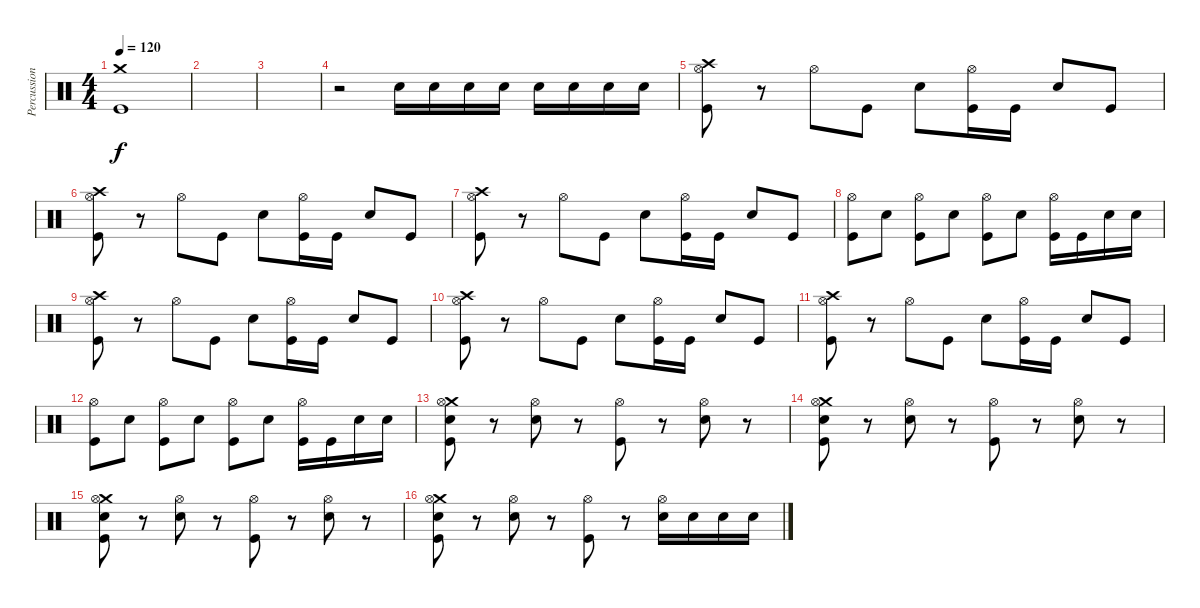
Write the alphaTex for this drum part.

\track ("Percussion" "Percussion") {instrument percussion}
\staff {score}
\articulation defaults
\ts (4 4)
\tempo 120
\clef neutral
\ks c
("Crash medium (hit)" "Kick (hit)").1{dy f} |
|
|
r.2 "Electric Snare (hit)".16 "Electric Snare (hit)".16 "Electric Snare (hit)".16 "Electric Snare (hit)".16 "Electric Snare (hit)".16 "Electric Snare (hit)".16 "Electric Snare (hit)".16 "Electric Snare (hit)".16 |
("Crash high (hit)" "Hi-Hat (open)" "Kick (hit)").8 r.8 "Hi-Hat (open)".8 "Kick (hit)".8 "Electric Snare (hit)".8 ("Hi-Hat (open)" "Kick (hit)").16 "Kick (hit)".16 "Electric Snare (hit)".8 "Kick (hit)".8 |
("Crash high (hit)" "Hi-Hat (open)" "Kick (hit)").8 r.8 "Hi-Hat (open)".8 "Kick (hit)".8 "Electric Snare (hit)".8 ("Hi-Hat (open)" "Kick (hit)").16 "Kick (hit)".16 "Electric Snare (hit)".8 "Kick (hit)".8 |
("Crash high (hit)" "Hi-Hat (open)" "Kick (hit)").8 r.8 "Hi-Hat (open)".8 "Kick (hit)".8 "Electric Snare (hit)".8 ("Hi-Hat (open)" "Kick (hit)").16 "Kick (hit)".16 "Electric Snare (hit)".8 "Kick (hit)".8 |
("Hi-Hat (open)" "Kick (hit)").8 "Electric Snare (hit)".8 ("Hi-Hat (open)" "Kick (hit)").8 "Electric Snare (hit)".8 ("Hi-Hat (open)" "Kick (hit)").8 "Electric Snare (hit)".8 ("Hi-Hat (open)" "Kick (hit)").16 "Kick (hit)".16 "Electric Snare (hit)".16 "Electric Snare (hit)".16 |
("Crash high (hit)" "Hi-Hat (open)" "Kick (hit)").8 r.8 "Hi-Hat (open)".8 "Kick (hit)".8 "Electric Snare (hit)".8 ("Hi-Hat (open)" "Kick (hit)").16 "Kick (hit)".16 "Electric Snare (hit)".8 "Kick (hit)".8 |
("Crash high (hit)" "Hi-Hat (open)" "Kick (hit)").8 r.8 "Hi-Hat (open)".8 "Kick (hit)".8 "Electric Snare (hit)".8 ("Hi-Hat (open)" "Kick (hit)").16 "Kick (hit)".16 "Electric Snare (hit)".8 "Kick (hit)".8 |
("Crash high (hit)" "Hi-Hat (open)" "Kick (hit)").8 r.8 "Hi-Hat (open)".8 "Kick (hit)".8 "Electric Snare (hit)".8 ("Hi-Hat (open)" "Kick (hit)").16 "Kick (hit)".16 "Electric Snare (hit)".8 "Kick (hit)".8 |
("Hi-Hat (open)" "Kick (hit)").8 "Electric Snare (hit)".8 ("Hi-Hat (open)" "Kick (hit)").8 "Electric Snare (hit)".8 ("Hi-Hat (open)" "Kick (hit)").8 "Electric Snare (hit)".8 ("Hi-Hat (open)" "Kick (hit)").16 "Kick (hit)".16 "Electric Snare (hit)".16 "Electric Snare (hit)".16 |
("Crash medium (hit)" "Hi-Hat (open)" "Electric Snare (hit)" "Kick (hit)").8 r.8 ("Hi-Hat (open)" "Electric Snare (hit)").8 r.8 ("Hi-Hat (open)" "Kick (hit)").8 r.8 ("Hi-Hat (open)" "Electric Snare (hit)").8 r.8 |
("Crash medium (hit)" "Hi-Hat (open)" "Electric Snare (hit)" "Kick (hit)").8 r.8 ("Hi-Hat (open)" "Electric Snare (hit)").8 r.8 ("Hi-Hat (open)" "Kick (hit)").8 r.8 ("Hi-Hat (open)" "Electric Snare (hit)").8 r.8 |
("Crash medium (hit)" "Hi-Hat (open)" "Electric Snare (hit)" "Kick (hit)").8 r.8 ("Hi-Hat (open)" "Electric Snare (hit)").8 r.8 ("Hi-Hat (open)" "Kick (hit)").8 r.8 ("Hi-Hat (open)" "Electric Snare (hit)").8 r.8 |
("Crash medium (hit)" "Hi-Hat (open)" "Electric Snare (hit)" "Kick (hit)").8 r.8 ("Hi-Hat (open)" "Electric Snare (hit)").8 r.8 ("Hi-Hat (open)" "Kick (hit)").8 r.8 ("Hi-Hat (open)" "Electric Snare (hit)").16 "Electric Snare (hit)".16 "Electric Snare (hit)".16 "Electric Snare (hit)".16
